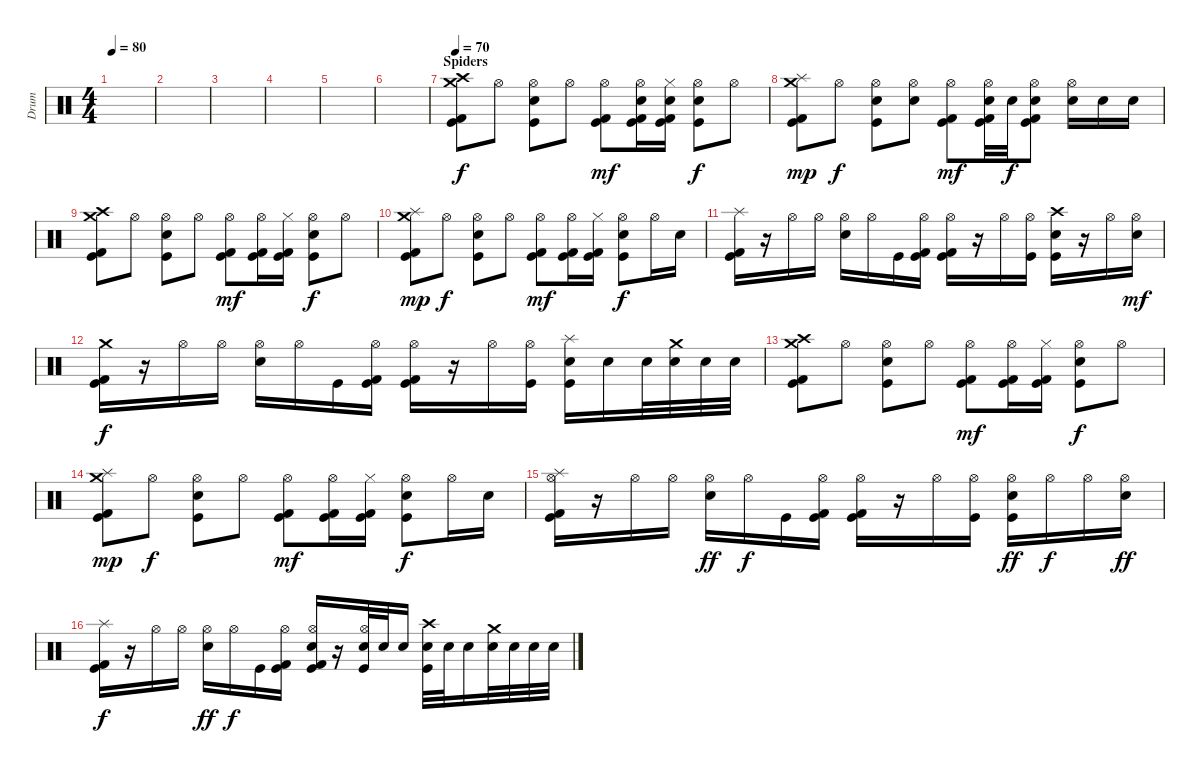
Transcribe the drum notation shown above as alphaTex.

\track ("Drum" "Drum") {instrument percussion}
\staff {score}
\articulation defaults
\ts (4 4)
\tempo 80
\clef neutral
\ks c
|
|
|
|
|
|
\section ("" "Spiders")
\tempo 70
("Crash medium (hit)" "Crash high (hit)" "Kick (hit) 2" "Kick (hit)").8 "Hi-Hat (open)".8 ("Hi-Hat (open)" "Electric Snare (hit)" "Kick (hit)").8 "Hi-Hat (open)".8 ("Hi-Hat (open)" "Kick (hit) 2" "Kick (hit)").8{dy mf} ("Hi-Hat (open)" "Electric Snare (hit)" "Kick (hit)" "Kick (hit) 2").16 ("Hi-Hat (closed)" "Electric Snare (hit)" "Kick (hit)" "Kick (hit) 2").16 ("Hi-Hat (open)" "Electric Snare (hit)" "Kick (hit)").8{dy f} "Hi-Hat (open)".8 |
("Crash medium (hit)" "Splash (hit)" "Kick (hit) 2" "Kick (hit)").8{dy mp} "Hi-Hat (open)".8{dy f} ("Hi-Hat (open)" "Electric Snare (hit)" "Kick (hit)").8 ("Hi-Hat (open)" "Electric Snare (hit)").8 ("Hi-Hat (open)" "Kick (hit) 2" "Kick (hit)").8{dy mf} ("Hi-Hat (open)" "Electric Snare (hit)" "Kick (hit)" "Kick (hit) 2").32 "Electric Snare (hit)".32{dy f} ("Hi-Hat (open)" "Electric Snare (hit)" "Kick (hit)" "Kick (hit) 2").8 ("Hi-Hat (open)" "Electric Snare (hit)").16 "Electric Snare (hit)".16 "Electric Snare (hit)".16 |
("Crash medium (hit)" "Crash high (hit)" "Kick (hit) 2" "Kick (hit)").8 "Hi-Hat (open)".8 ("Hi-Hat (open)" "Electric Snare (hit)" "Kick (hit)").8 "Hi-Hat (open)".8 ("Hi-Hat (open)" "Kick (hit) 2" "Kick (hit)").8{dy mf} ("Hi-Hat (open)" "Kick (hit)" "Kick (hit) 2").16 ("Hi-Hat (closed)" "Kick (hit)" "Kick (hit) 2").16 ("Hi-Hat (open)" "Electric Snare (hit)" "Kick (hit)").8{dy f} "Hi-Hat (open)".8 |
("Crash medium (hit)" "Splash (hit)" "Kick (hit) 2" "Kick (hit)").8{dy mp} "Hi-Hat (open)".8{dy f} ("Hi-Hat (open)" "Electric Snare (hit)" "Kick (hit)").8 "Hi-Hat (open)".8 ("Hi-Hat (open)" "Kick (hit) 2" "Kick (hit)").8{dy mf} ("Hi-Hat (open)" "Kick (hit)" "Kick (hit) 2").16 ("Hi-Hat (closed)" "Kick (hit)" "Kick (hit) 2").16 ("Hi-Hat (open)" "Electric Snare (hit)" "Kick (hit)").8{dy f} "Hi-Hat (open)".16 "Electric Snare (hit)".16 |
("Splash (hit)" "Kick (hit) 2" "Kick (hit)").16 r.16 "Hi-Hat (open)".16 "Hi-Hat (open)".16 ("Hi-Hat (open)" "Electric Snare (hit)").16 "Hi-Hat (open)".16 "Kick (hit)".16 ("Hi-Hat (open)" "Kick (hit) 2" "Kick (hit)").16 ("Hi-Hat (open)" "Kick (hit) 2" "Kick (hit)").16 r.16 "Hi-Hat (open)".16 ("Hi-Hat (open)" "Kick (hit)").16 ("Crash high (hit)" "Electric Snare (hit)" "Kick (hit)").16 r.16 "Hi-Hat (open)".16 ("Hi-Hat (open)" "Electric Snare (hit)").16{dy mf} |
("Crash medium (hit)" "Kick (hit) 2" "Kick (hit)").16{dy f} r.16 "Hi-Hat (open)".16 "Hi-Hat (open)".16 ("Hi-Hat (open)" "Electric Snare (hit)").16 "Hi-Hat (open)".16 "Kick (hit)".16 ("Hi-Hat (open)" "Kick (hit) 2" "Kick (hit)").16 ("Hi-Hat (open)" "Kick (hit) 2" "Kick (hit)").16 r.16 "Hi-Hat (open)".16 ("Hi-Hat (open)" "Kick (hit)").16 ("Splash (hit)" "Electric Snare (hit)" "Kick (hit)").16 "Electric Snare (hit)".16 "Electric Snare (hit)".32 ("Crash medium (hit)" "Electric Snare (hit)").32 "Electric Snare (hit)".32 "Electric Snare (hit)".32 |
("Crash medium (hit)" "Crash high (hit)" "Kick (hit) 2" "Kick (hit)").8 "Hi-Hat (open)".8 ("Hi-Hat (open)" "Electric Snare (hit)" "Kick (hit)").8 "Hi-Hat (open)".8 ("Hi-Hat (open)" "Kick (hit) 2" "Kick (hit)").8{dy mf} ("Hi-Hat (open)" "Kick (hit)" "Kick (hit) 2").16 ("Hi-Hat (closed)" "Kick (hit)" "Kick (hit) 2").16 ("Hi-Hat (open)" "Electric Snare (hit)" "Kick (hit)").8{dy f} "Hi-Hat (open)".8 |
("Crash medium (hit)" "Splash (hit)" "Kick (hit) 2" "Kick (hit)").8{dy mp} "Hi-Hat (open)".8{dy f} ("Hi-Hat (open)" "Electric Snare (hit)" "Kick (hit)").8 "Hi-Hat (open)".8 ("Hi-Hat (open)" "Kick (hit) 2" "Kick (hit)").8{dy mf} ("Hi-Hat (open)" "Kick (hit)" "Kick (hit) 2").16 ("Hi-Hat (closed)" "Kick (hit)" "Kick (hit) 2").16 ("Hi-Hat (open)" "Electric Snare (hit)" "Kick (hit)").8{dy f} "Hi-Hat (open)".16 "Electric Snare (hit)".16 |
("Hi-Hat (open)" "Splash (hit)" "Kick (hit) 2" "Kick (hit)").16 r.16 "Hi-Hat (open)".16 "Hi-Hat (open)".16 ("Hi-Hat (open)" "Electric Snare (hit)").16{dy ff} "Hi-Hat (open)".16{dy f} "Kick (hit)".16 ("Hi-Hat (open)" "Kick (hit) 2" "Kick (hit)").16 ("Hi-Hat (open)" "Kick (hit) 2" "Kick (hit)").16 r.16 "Hi-Hat (open)".16 ("Hi-Hat (open)" "Kick (hit)").16 ("Hi-Hat (open)" "Electric Snare (hit)" "Kick (hit)").16{dy ff} "Hi-Hat (open)".16{dy f} "Hi-Hat (open)".16 ("Hi-Hat (open)" "Electric Snare (hit)").16{dy ff} |
("Splash (hit)" "Kick (hit) 2" "Kick (hit)").16{dy f} r.16 "Hi-Hat (open)".16 "Hi-Hat (open)".16 ("Hi-Hat (open)" "Electric Snare (hit)").16{dy ff} "Hi-Hat (open)".16{dy f} "Kick (hit)".16 ("Hi-Hat (open)" "Kick (hit) 2" "Kick (hit)").16 ("Hi-Hat (open)" "Electric Snare (hit)" "Kick (hit) 2" "Kick (hit)").16 r.16 ("Hi-Hat (open)" "Electric Snare (hit)" "Kick (hit)").32 "Electric Snare (hit)".32 "Electric Snare (hit)".16 ("Crash high (hit)" "Electric Snare (hit)" "Kick (hit)").32 "Electric Snare (hit)".32 "Electric Snare (hit)".16 ("Crash medium (hit)" "Electric Snare (hit)").32 "Electric Snare (hit)".32 "Electric Snare (hit)".32 "Electric Snare (hit)".32
